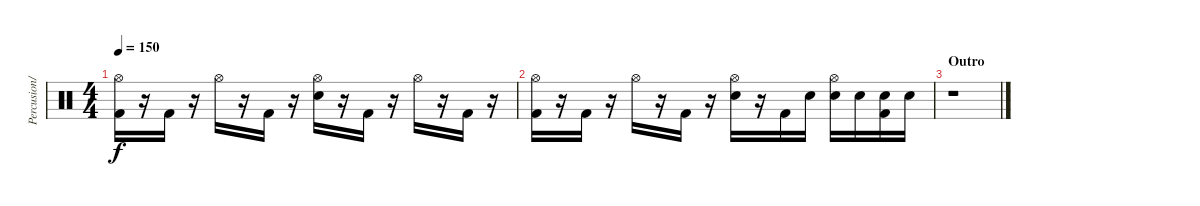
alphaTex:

\track ("Percusion/Drum" "Percusion/") {instrument percussion}
\staff {score}
\articulation defaults
\ts (4 4)
\tempo 150
\clef neutral
\ks c
("Hi-Hat (open)" "Kick (hit) 2").16{dy f} r.16 "Kick (hit) 2".16 r.16 "Hi-Hat (open)".16 r.16 "Kick (hit) 2".16 r.16 ("Hi-Hat (open)" "Electric Snare (hit)").16 r.16 "Kick (hit) 2".16 r.16 "Hi-Hat (open)".16 r.16 "Kick (hit) 2".16 r.16 |
("Hi-Hat (open)" "Kick (hit) 2").16 r.16 "Kick (hit) 2".16 r.16 "Hi-Hat (open)".16 r.16 "Kick (hit) 2".16 r.16 ("Hi-Hat (open)" "Electric Snare (hit)").16 r.16 "Kick (hit) 2".16 "Electric Snare (hit)".16 ("Hi-Hat (open)" "Electric Snare (hit)").16 "Electric Snare (hit)".16 ("Electric Snare (hit)" "Kick (hit) 2").16 "Electric Snare (hit)".16 |
\section ("" "Outro")
r.1
